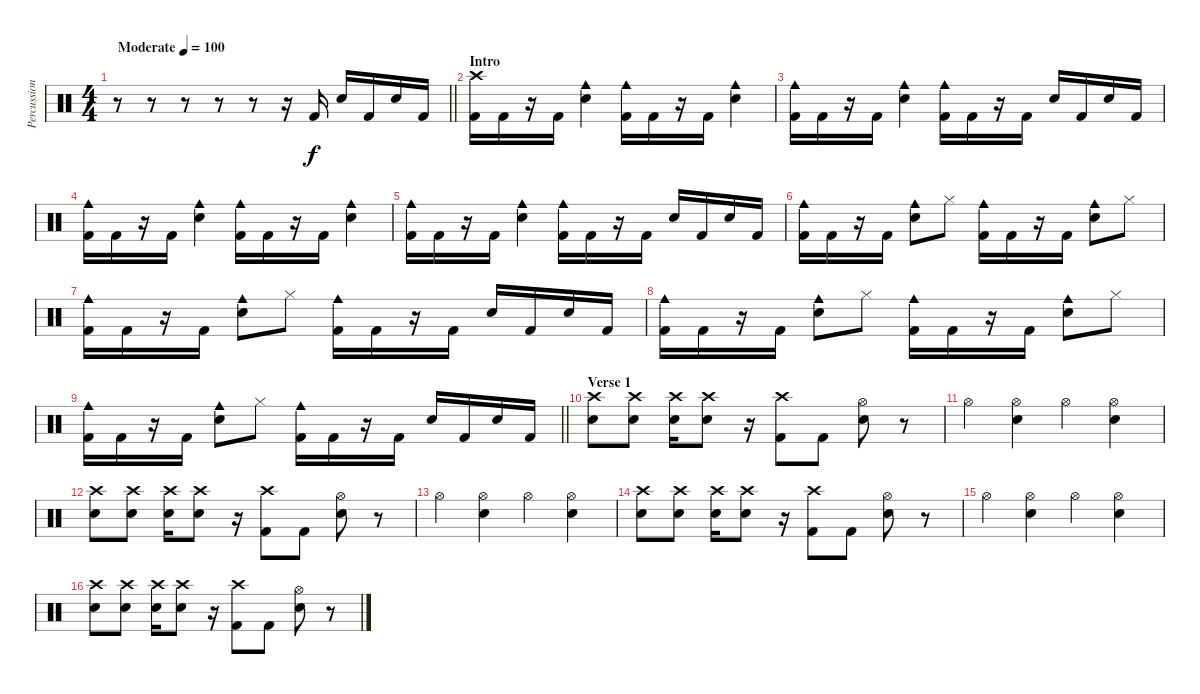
\track ("Percussion" "Percussion") {instrument percussion}
\staff {score}
\articulation defaults
\ts (4 4)
\tempo (100 "Moderate")
\clef neutral
\barLineRight lightlight
\ks c
r.8{dy f} r.8 r.8 r.8 r.8 r.16 "Kick (hit) 2".16 "Snare (hit) 2".16 "Kick (hit) 2".16 "Snare (hit) 2".16 "Kick (hit) 2".16 |
\section ("" "Intro")
("Crash high (hit)" "Kick (hit) 2").16 "Kick (hit) 2".16 r.16 "Kick (hit) 2".16 ("Cowbell medium (hit)" "Snare (hit) 2").4 ("Cowbell medium (hit)" "Kick (hit) 2").16 "Kick (hit) 2".16 r.16 "Kick (hit) 2".16 ("Cowbell medium (hit)" "Snare (hit) 2").4 |
("Cowbell medium (hit)" "Kick (hit) 2").16 "Kick (hit) 2".16 r.16 "Kick (hit) 2".16 ("Cowbell medium (hit)" "Snare (hit) 2").4 ("Cowbell medium (hit)" "Kick (hit) 2").16 "Kick (hit) 2".16 r.16 "Kick (hit) 2".16 "Snare (hit) 2".16 "Kick (hit) 2".16 "Snare (hit) 2".16 "Kick (hit) 2".16 |
("Cowbell medium (hit)" "Kick (hit) 2").16 "Kick (hit) 2".16 r.16 "Kick (hit) 2".16 ("Cowbell medium (hit)" "Snare (hit) 2").4 ("Cowbell medium (hit)" "Kick (hit) 2").16 "Kick (hit) 2".16 r.16 "Kick (hit) 2".16 ("Cowbell medium (hit)" "Snare (hit) 2").4 |
("Cowbell medium (hit)" "Kick (hit) 2").16 "Kick (hit) 2".16 r.16 "Kick (hit) 2".16 ("Cowbell medium (hit)" "Snare (hit) 2").4 ("Cowbell medium (hit)" "Kick (hit) 2").16 "Kick (hit) 2".16 r.16 "Kick (hit) 2".16 "Snare (hit) 2".16 "Kick (hit) 2".16 "Snare (hit) 2".16 "Kick (hit) 2".16 |
("Cowbell medium (hit)" "Kick (hit) 2").16 "Kick (hit) 2".16 r.16 "Kick (hit) 2".16 ("Cowbell medium (hit)" "Snare (hit) 2").8 "Hi-Hat (closed)".8 ("Cowbell medium (hit)" "Kick (hit) 2").16 "Kick (hit) 2".16 r.16 "Kick (hit) 2".16 ("Cowbell medium (hit)" "Snare (hit) 2").8 "Hi-Hat (closed)".8 |
("Cowbell medium (hit)" "Kick (hit) 2").16 "Kick (hit) 2".16 r.16 "Kick (hit) 2".16 ("Cowbell medium (hit)" "Snare (hit) 2").8 "Hi-Hat (closed)".8 ("Cowbell medium (hit)" "Kick (hit) 2").16 "Kick (hit) 2".16 r.16 "Kick (hit) 2".16 "Snare (hit) 2".16 "Kick (hit) 2".16 "Snare (hit) 2".16 "Kick (hit) 2".16 |
("Cowbell medium (hit)" "Kick (hit) 2").16 "Kick (hit) 2".16 r.16 "Kick (hit) 2".16 ("Cowbell medium (hit)" "Snare (hit) 2").8 "Hi-Hat (closed)".8 ("Cowbell medium (hit)" "Kick (hit) 2").16 "Kick (hit) 2".16 r.16 "Kick (hit) 2".16 ("Cowbell medium (hit)" "Snare (hit) 2").8 "Hi-Hat (closed)".8 |
\barLineRight lightlight
("Cowbell medium (hit)" "Kick (hit) 2").16 "Kick (hit) 2".16 r.16 "Kick (hit) 2".16 ("Cowbell medium (hit)" "Snare (hit) 2").8 "Hi-Hat (closed)".8 ("Cowbell medium (hit)" "Kick (hit) 2").16 "Kick (hit) 2".16 r.16 "Kick (hit) 2".16 "Snare (hit) 2".16 "Kick (hit) 2".16 "Snare (hit) 2".16 "Kick (hit) 2".16 |
\section ("" "Verse 1")
("Crash high (hit)" "Snare (hit) 2").8 ("Crash high (hit)" "Snare (hit) 2").8 ("Crash high (hit)" "Snare (hit) 2").16 ("Crash high (hit)" "Snare (hit) 2").8 r.16 ("Crash high (hit)" "Kick (hit) 2").8 "Kick (hit) 2".8 ("Hi-Hat (open)" "Snare (hit) 2").8 r.8 |
"Hi-Hat (open)".4 ("Hi-Hat (open)" "Snare (hit) 2").4 "Hi-Hat (open)".4 ("Hi-Hat (open)" "Snare (hit) 2").4 |
("Crash high (hit)" "Snare (hit) 2").8 ("Crash high (hit)" "Snare (hit) 2").8 ("Crash high (hit)" "Snare (hit) 2").16 ("Crash high (hit)" "Snare (hit) 2").8 r.16 ("Crash high (hit)" "Kick (hit) 2").8 "Kick (hit) 2".8 ("Hi-Hat (open)" "Snare (hit) 2").8 r.8 |
"Hi-Hat (open)".4 ("Hi-Hat (open)" "Snare (hit) 2").4 "Hi-Hat (open)".4 ("Hi-Hat (open)" "Snare (hit) 2").4 |
("Crash high (hit)" "Snare (hit) 2").8 ("Crash high (hit)" "Snare (hit) 2").8 ("Crash high (hit)" "Snare (hit) 2").16 ("Crash high (hit)" "Snare (hit) 2").8 r.16 ("Crash high (hit)" "Kick (hit) 2").8 "Kick (hit) 2".8 ("Hi-Hat (open)" "Snare (hit) 2").8 r.8 |
"Hi-Hat (open)".4 ("Hi-Hat (open)" "Snare (hit) 2").4 "Hi-Hat (open)".4 ("Hi-Hat (open)" "Snare (hit) 2").4 |
("Crash high (hit)" "Snare (hit) 2").8 ("Crash high (hit)" "Snare (hit) 2").8 ("Crash high (hit)" "Snare (hit) 2").16 ("Crash high (hit)" "Snare (hit) 2").8 r.16 ("Crash high (hit)" "Kick (hit) 2").8 "Kick (hit) 2".8 ("Hi-Hat (open)" "Snare (hit) 2").8 r.8
